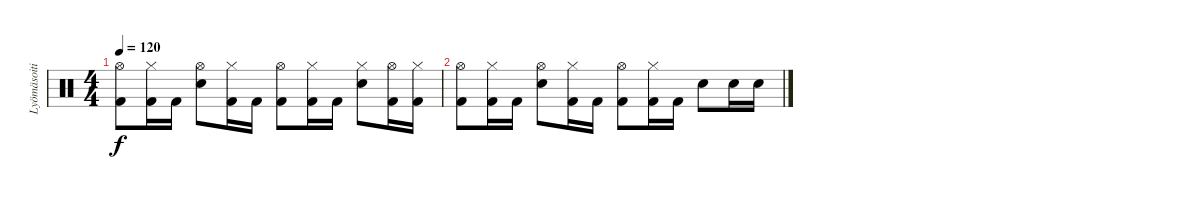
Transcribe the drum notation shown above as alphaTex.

\track ("Lyömäsoitin" "Lyömäsoiti") {instrument percussion}
\staff {score}
\articulation defaults
\ts (4 4)
\tempo 120
\clef neutral
\ks c
("Hi-Hat (open)" "Kick (hit) 2").8{dy f} ("Hi-Hat (closed)" "Kick (hit) 2").16 "Kick (hit) 2".16 ("Hi-Hat (open)" "Electric Snare (hit)").8 ("Hi-Hat (closed)" "Kick (hit) 2").16 "Kick (hit) 2".16 ("Hi-Hat (open)" "Kick (hit) 2").8 ("Hi-Hat (closed)" "Kick (hit) 2").16 "Kick (hit) 2".16 ("Hi-Hat (closed)" "Electric Snare (hit)").8 ("Hi-Hat (open)" "Kick (hit) 2").16 ("Hi-Hat (closed)" "Kick (hit) 2").16 |
("Hi-Hat (open)" "Kick (hit) 2").8 ("Hi-Hat (closed)" "Kick (hit) 2").16 "Kick (hit) 2".16 ("Hi-Hat (open)" "Electric Snare (hit)").8 ("Hi-Hat (closed)" "Kick (hit) 2").16 "Kick (hit) 2".16 ("Hi-Hat (open)" "Kick (hit) 2").8 ("Hi-Hat (closed)" "Kick (hit) 2").16 "Kick (hit) 2".16 "Electric Snare (hit)".8 "Electric Snare (hit)".16 "Electric Snare (hit)".16
